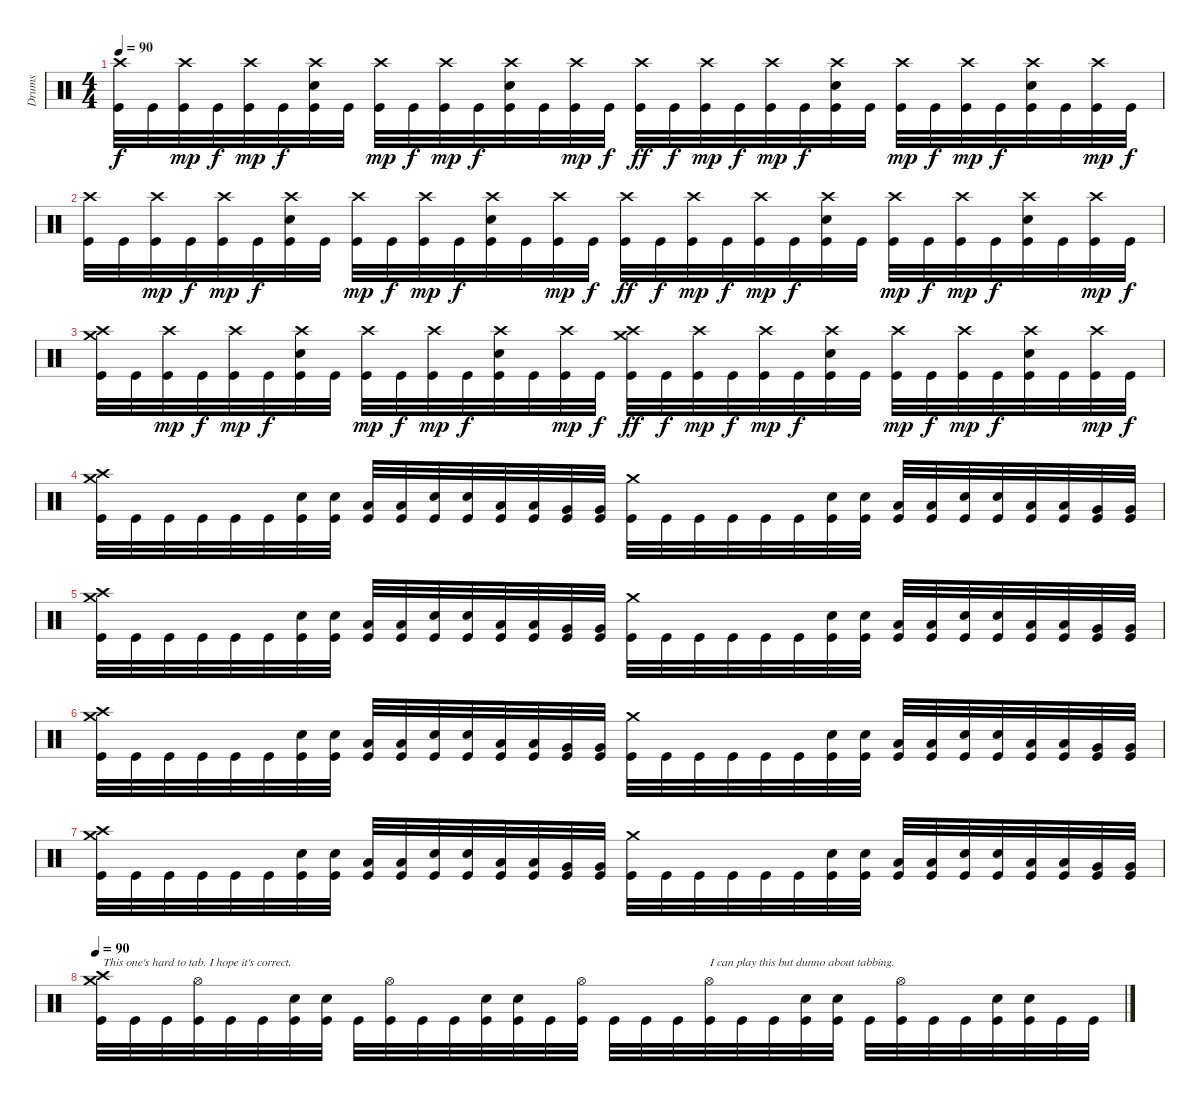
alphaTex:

\track ("Drums" "Drums") {instrument percussion}
\staff {score}
\articulation defaults
\ts (4 4)
\tempo 90
\clef neutral
\ks c
("Crash high (hit)" "Kick (hit)").32{dy f} "Kick (hit)".32 ("Crash high (hit)" "Kick (hit)").32{dy mp} "Kick (hit)".32{dy f} ("Crash high (hit)" "Kick (hit)").32{dy mp} "Kick (hit)".32{dy f} ("Crash high (hit)" "Electric Snare (hit)" "Kick (hit)").32 "Kick (hit)".32 ("Crash high (hit)" "Kick (hit)").32{dy mp} "Kick (hit)".32{dy f} ("Crash high (hit)" "Kick (hit)").32{dy mp} "Kick (hit)".32{dy f} ("Crash high (hit)" "Electric Snare (hit)" "Kick (hit)").32 "Kick (hit)".32 ("Crash high (hit)" "Kick (hit)").32{dy mp} "Kick (hit)".32{dy f} ("Crash high (hit)" "Kick (hit)").32{dy ff} "Kick (hit)".32{dy f} ("Crash high (hit)" "Kick (hit)").32{dy mp} "Kick (hit)".32{dy f} ("Crash high (hit)" "Kick (hit)").32{dy mp} "Kick (hit)".32{dy f} ("Crash high (hit)" "Electric Snare (hit)" "Kick (hit)").32 "Kick (hit)".32 ("Crash high (hit)" "Kick (hit)").32{dy mp} "Kick (hit)".32{dy f} ("Crash high (hit)" "Kick (hit)").32{dy mp} "Kick (hit)".32{dy f} ("Crash high (hit)" "Electric Snare (hit)" "Kick (hit)").32 "Kick (hit)".32 ("Crash high (hit)" "Kick (hit)").32{dy mp} "Kick (hit)".32{dy f} |
("Crash high (hit)" "Kick (hit)").32 "Kick (hit)".32 ("Crash high (hit)" "Kick (hit)").32{dy mp} "Kick (hit)".32{dy f} ("Crash high (hit)" "Kick (hit)").32{dy mp} "Kick (hit)".32{dy f} ("Crash high (hit)" "Electric Snare (hit)" "Kick (hit)").32 "Kick (hit)".32 ("Crash high (hit)" "Kick (hit)").32{dy mp} "Kick (hit)".32{dy f} ("Crash high (hit)" "Kick (hit)").32{dy mp} "Kick (hit)".32{dy f} ("Crash high (hit)" "Electric Snare (hit)" "Kick (hit)").32 "Kick (hit)".32 ("Crash high (hit)" "Kick (hit)").32{dy mp} "Kick (hit)".32{dy f} ("Crash high (hit)" "Kick (hit)").32{dy ff} "Kick (hit)".32{dy f} ("Crash high (hit)" "Kick (hit)").32{dy mp} "Kick (hit)".32{dy f} ("Crash high (hit)" "Kick (hit)").32{dy mp} "Kick (hit)".32{dy f} ("Crash high (hit)" "Electric Snare (hit)" "Kick (hit)").32 "Kick (hit)".32 ("Crash high (hit)" "Kick (hit)").32{dy mp} "Kick (hit)".32{dy f} ("Crash high (hit)" "Kick (hit)").32{dy mp} "Kick (hit)".32{dy f} ("Crash high (hit)" "Electric Snare (hit)" "Kick (hit)").32 "Kick (hit)".32 ("Crash high (hit)" "Kick (hit)").32{dy mp} "Kick (hit)".32{dy f} |
("Crash medium (hit)" "Crash high (hit)" "Kick (hit)").32 "Kick (hit)".32 ("Crash high (hit)" "Kick (hit)").32{dy mp} "Kick (hit)".32{dy f} ("Crash high (hit)" "Kick (hit)").32{dy mp} "Kick (hit)".32{dy f} ("Crash high (hit)" "Electric Snare (hit)" "Kick (hit)").32 "Kick (hit)".32 ("Crash high (hit)" "Kick (hit)").32{dy mp} "Kick (hit)".32{dy f} ("Crash high (hit)" "Kick (hit)").32{dy mp} "Kick (hit)".32{dy f} ("Crash high (hit)" "Electric Snare (hit)" "Kick (hit)").32 "Kick (hit)".32 ("Crash high (hit)" "Kick (hit)").32{dy mp} "Kick (hit)".32{dy f} ("Crash medium (hit)" "Crash high (hit)" "Kick (hit)").32{dy ff} "Kick (hit)".32{dy f} ("Crash high (hit)" "Kick (hit)").32{dy mp} "Kick (hit)".32{dy f} ("Crash high (hit)" "Kick (hit)").32{dy mp} "Kick (hit)".32{dy f} ("Crash high (hit)" "Electric Snare (hit)" "Kick (hit)").32 "Kick (hit)".32 ("Crash high (hit)" "Kick (hit)").32{dy mp} "Kick (hit)".32{dy f} ("Crash high (hit)" "Kick (hit)").32{dy mp} "Kick (hit)".32{dy f} ("Crash high (hit)" "Electric Snare (hit)" "Kick (hit)").32 "Kick (hit)".32 ("Crash high (hit)" "Kick (hit)").32{dy mp} "Kick (hit)".32{dy f} |
("Crash medium (hit)" "Crash high (hit)" "Kick (hit)").32 "Kick (hit)".32 "Kick (hit)".32 "Kick (hit)".32 "Kick (hit)".32 "Kick (hit)".32 ("Electric Snare (hit)" "Kick (hit)").32 ("Electric Snare (hit)" "Kick (hit)").32 ("Low Tom (hit)" "Kick (hit)").32 ("Low Tom (hit)" "Kick (hit)").32 ("Electric Snare (hit)" "Kick (hit)").32 ("Electric Snare (hit)" "Kick (hit)").32 ("Low Tom (hit)" "Kick (hit)").32 ("Low Tom (hit)" "Kick (hit)").32 ("Very Low Tom (hit)" "Kick (hit)").32 ("Very Low Tom (hit)" "Kick (hit)").32 ("Crash medium (hit)" "Kick (hit)").32 "Kick (hit)".32 "Kick (hit)".32 "Kick (hit)".32 "Kick (hit)".32 "Kick (hit)".32 ("Electric Snare (hit)" "Kick (hit)").32 ("Electric Snare (hit)" "Kick (hit)").32 ("Low Tom (hit)" "Kick (hit)").32 ("Low Tom (hit)" "Kick (hit)").32 ("Electric Snare (hit)" "Kick (hit)").32 ("Electric Snare (hit)" "Kick (hit)").32 ("Low Tom (hit)" "Kick (hit)").32 ("Low Tom (hit)" "Kick (hit)").32 ("Very Low Tom (hit)" "Kick (hit)").32 ("Very Low Tom (hit)" "Kick (hit)").32 |
("Crash medium (hit)" "Crash high (hit)" "Kick (hit)").32 "Kick (hit)".32 "Kick (hit)".32 "Kick (hit)".32 "Kick (hit)".32 "Kick (hit)".32 ("Electric Snare (hit)" "Kick (hit)").32 ("Electric Snare (hit)" "Kick (hit)").32 ("Low Tom (hit)" "Kick (hit)").32 ("Low Tom (hit)" "Kick (hit)").32 ("Electric Snare (hit)" "Kick (hit)").32 ("Electric Snare (hit)" "Kick (hit)").32 ("Low Tom (hit)" "Kick (hit)").32 ("Low Tom (hit)" "Kick (hit)").32 ("Very Low Tom (hit)" "Kick (hit)").32 ("Very Low Tom (hit)" "Kick (hit)").32 ("Crash medium (hit)" "Kick (hit)").32 "Kick (hit)".32 "Kick (hit)".32 "Kick (hit)".32 "Kick (hit)".32 "Kick (hit)".32 ("Electric Snare (hit)" "Kick (hit)").32 ("Electric Snare (hit)" "Kick (hit)").32 ("Low Tom (hit)" "Kick (hit)").32 ("Low Tom (hit)" "Kick (hit)").32 ("Electric Snare (hit)" "Kick (hit)").32 ("Electric Snare (hit)" "Kick (hit)").32 ("Low Tom (hit)" "Kick (hit)").32 ("Low Tom (hit)" "Kick (hit)").32 ("Very Low Tom (hit)" "Kick (hit)").32 ("Very Low Tom (hit)" "Kick (hit)").32 |
("Crash medium (hit)" "Crash high (hit)" "Kick (hit)").32 "Kick (hit)".32 "Kick (hit)".32 "Kick (hit)".32 "Kick (hit)".32 "Kick (hit)".32 ("Electric Snare (hit)" "Kick (hit)").32 ("Electric Snare (hit)" "Kick (hit)").32 ("Low Tom (hit)" "Kick (hit)").32 ("Low Tom (hit)" "Kick (hit)").32 ("Electric Snare (hit)" "Kick (hit)").32 ("Electric Snare (hit)" "Kick (hit)").32 ("Low Tom (hit)" "Kick (hit)").32 ("Low Tom (hit)" "Kick (hit)").32 ("Very Low Tom (hit)" "Kick (hit)").32 ("Very Low Tom (hit)" "Kick (hit)").32 ("Crash medium (hit)" "Kick (hit)").32 "Kick (hit)".32 "Kick (hit)".32 "Kick (hit)".32 "Kick (hit)".32 "Kick (hit)".32 ("Electric Snare (hit)" "Kick (hit)").32 ("Electric Snare (hit)" "Kick (hit)").32 ("Low Tom (hit)" "Kick (hit)").32 ("Low Tom (hit)" "Kick (hit)").32 ("Electric Snare (hit)" "Kick (hit)").32 ("Electric Snare (hit)" "Kick (hit)").32 ("Low Tom (hit)" "Kick (hit)").32 ("Low Tom (hit)" "Kick (hit)").32 ("Very Low Tom (hit)" "Kick (hit)").32 ("Very Low Tom (hit)" "Kick (hit)").32 |
("Crash medium (hit)" "Crash high (hit)" "Kick (hit)").32 "Kick (hit)".32 "Kick (hit)".32 "Kick (hit)".32 "Kick (hit)".32 "Kick (hit)".32 ("Electric Snare (hit)" "Kick (hit)").32 ("Electric Snare (hit)" "Kick (hit)").32 ("Low Tom (hit)" "Kick (hit)").32 ("Low Tom (hit)" "Kick (hit)").32 ("Electric Snare (hit)" "Kick (hit)").32 ("Electric Snare (hit)" "Kick (hit)").32 ("Low Tom (hit)" "Kick (hit)").32 ("Low Tom (hit)" "Kick (hit)").32 ("Very Low Tom (hit)" "Kick (hit)").32 ("Very Low Tom (hit)" "Kick (hit)").32 ("Crash medium (hit)" "Kick (hit)").32 "Kick (hit)".32 "Kick (hit)".32 "Kick (hit)".32 "Kick (hit)".32 "Kick (hit)".32 ("Electric Snare (hit)" "Kick (hit)").32 ("Electric Snare (hit)" "Kick (hit)").32 ("Low Tom (hit)" "Kick (hit)").32 ("Low Tom (hit)" "Kick (hit)").32 ("Electric Snare (hit)" "Kick (hit)").32 ("Electric Snare (hit)" "Kick (hit)").32 ("Low Tom (hit)" "Kick (hit)").32 ("Low Tom (hit)" "Kick (hit)").32 ("Very Low Tom (hit)" "Kick (hit)").32 ("Very Low Tom (hit)" "Kick (hit)").32 |
\tempo 75
\tempo 90
("Crash medium (hit)" "Crash high (hit)" "Kick (hit)").32{txt "This one's hard to tab. I hope it's correct. "} "Kick (hit)".32 "Kick (hit)".32 ("Hi-Hat (open)" "Kick (hit)").32 "Kick (hit)".32 "Kick (hit)".32 ("Electric Snare (hit)" "Kick (hit)").32 ("Electric Snare (hit)" "Kick (hit)").32 "Kick (hit)".32 ("Hi-Hat (open)" "Kick (hit)").32 "Kick (hit)".32 "Kick (hit)".32 ("Electric Snare (hit)" "Kick (hit)").32 ("Electric Snare (hit)" "Kick (hit)").32 "Kick (hit)".32 ("Hi-Hat (open)" "Kick (hit)").32 "Kick (hit)".32 "Kick (hit)".32 "Kick (hit)".32 ("Hi-Hat (open)" "Kick (hit)").32{txt "I can play this but dunno about tabbing."} "Kick (hit)".32 "Kick (hit)".32 ("Electric Snare (hit)" "Kick (hit)").32 ("Electric Snare (hit)" "Kick (hit)").32 "Kick (hit)".32 ("Hi-Hat (open)" "Kick (hit)").32 "Kick (hit)".32 "Kick (hit)".32 ("Electric Snare (hit)" "Kick (hit)").32 ("Electric Snare (hit)" "Kick (hit)").32 "Kick (hit)".32 "Kick (hit)".32
